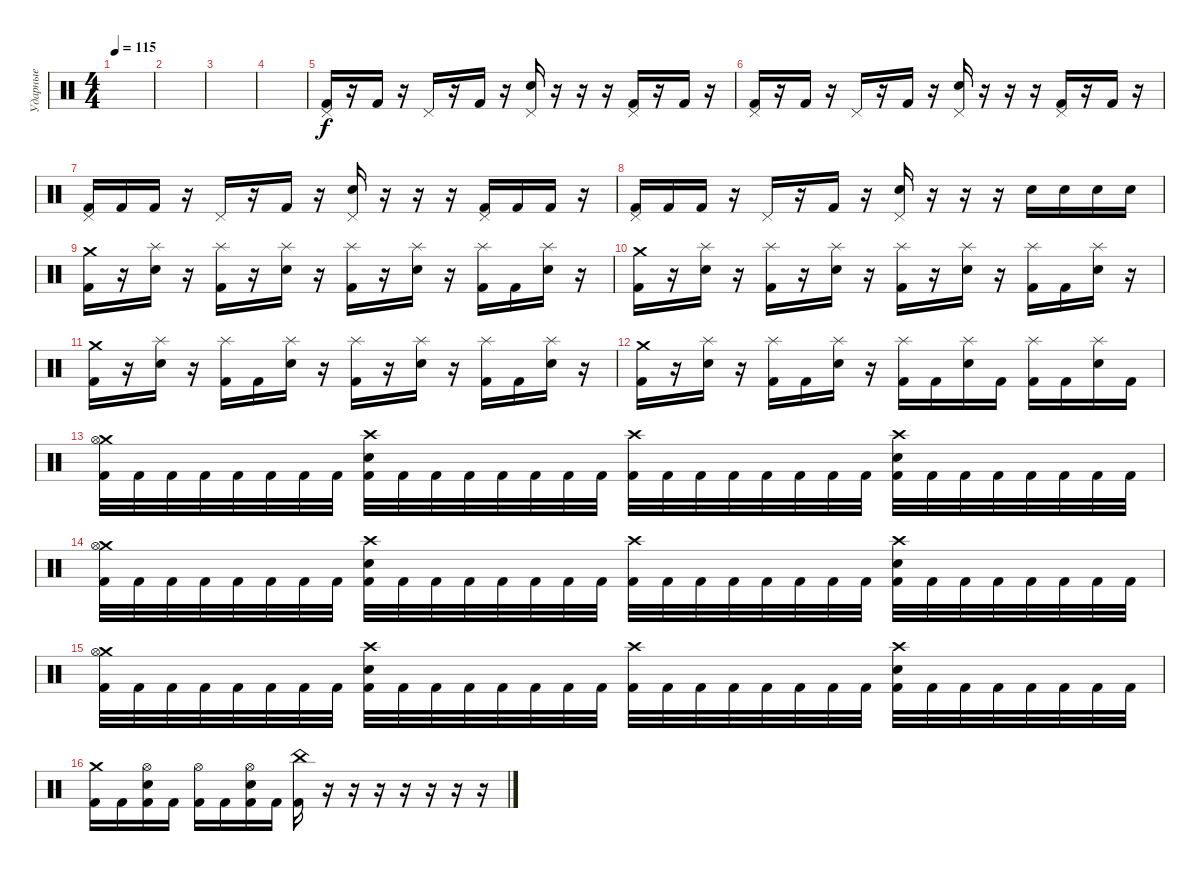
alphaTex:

\track ("Ударные" "Ударные") {instrument percussion}
\staff {score}
\articulation defaults
\ts (4 4)
\tempo 115
\clef neutral
\ks c
|
|
|
|
("Pedal Hi-Hat (hit)" "Kick (hit) 2").16 r.16 "Kick (hit) 2".16 r.16 "Pedal Hi-Hat (hit)".16 r.16 "Kick (hit) 2".16 r.16 ("Pedal Hi-Hat (hit)" "Electric Snare (hit)").16 r.16 r.16 r.16 ("Pedal Hi-Hat (hit)" "Kick (hit) 2").16 r.16 "Kick (hit) 2".16 r.16 |
("Pedal Hi-Hat (hit)" "Kick (hit) 2").16 r.16 "Kick (hit) 2".16 r.16 "Pedal Hi-Hat (hit)".16 r.16 "Kick (hit) 2".16 r.16 ("Pedal Hi-Hat (hit)" "Electric Snare (hit)").16 r.16 r.16 r.16 ("Pedal Hi-Hat (hit)" "Kick (hit) 2").16 r.16 "Kick (hit) 2".16 r.16 |
("Pedal Hi-Hat (hit)" "Kick (hit) 2").16 "Kick (hit) 2".16 "Kick (hit) 2".16 r.16 "Pedal Hi-Hat (hit)".16 r.16 "Kick (hit) 2".16 r.16 ("Pedal Hi-Hat (hit)" "Electric Snare (hit)").16 r.16 r.16 r.16 ("Pedal Hi-Hat (hit)" "Kick (hit) 2").16 "Kick (hit) 2".16 "Kick (hit) 2".16 r.16 |
("Pedal Hi-Hat (hit)" "Kick (hit) 2").16 "Kick (hit) 2".16 "Kick (hit) 2".16 r.16 "Pedal Hi-Hat (hit)".16 r.16 "Kick (hit) 2".16 r.16 ("Pedal Hi-Hat (hit)" "Electric Snare (hit)").16 r.16 r.16 r.16 "Electric Snare (hit)".16 "Electric Snare (hit)".16 "Electric Snare (hit)".16 "Electric Snare (hit)".16 |
("Crash medium (hit)" "Kick (hit) 2").16 r.16 ("Splash (hit)" "Electric Snare (hit)").16 r.16 ("Splash (hit)" "Kick (hit) 2").16 r.16 ("Splash (hit)" "Electric Snare (hit)").16 r.16 ("Splash (hit)" "Kick (hit) 2").16 r.16 ("Splash (hit)" "Electric Snare (hit)").16 r.16 ("Splash (hit)" "Kick (hit) 2").16 "Kick (hit) 2".16 ("Splash (hit)" "Electric Snare (hit)").16 r.16 |
("Crash medium (hit)" "Kick (hit) 2").16 r.16 ("Splash (hit)" "Electric Snare (hit)").16 r.16 ("Splash (hit)" "Kick (hit) 2").16 r.16 ("Splash (hit)" "Electric Snare (hit)").16 r.16 ("Splash (hit)" "Kick (hit) 2").16 r.16 ("Splash (hit)" "Electric Snare (hit)").16 r.16 ("Splash (hit)" "Kick (hit) 2").16 "Kick (hit) 2".16 ("Splash (hit)" "Electric Snare (hit)").16 r.16 |
("Crash medium (hit)" "Kick (hit) 2").16 r.16 ("Splash (hit)" "Electric Snare (hit)").16 r.16 ("Splash (hit)" "Kick (hit) 2").16 "Kick (hit) 2".16 ("Splash (hit)" "Electric Snare (hit)").16 r.16 ("Splash (hit)" "Kick (hit) 2").16 r.16 ("Splash (hit)" "Electric Snare (hit)").16 r.16 ("Splash (hit)" "Kick (hit) 2").16 "Kick (hit) 2".16 ("Splash (hit)" "Electric Snare (hit)").16 r.16 |
("Crash medium (hit)" "Kick (hit) 2").16 r.16 ("Splash (hit)" "Electric Snare (hit)").16 r.16 ("Splash (hit)" "Kick (hit) 2").16 "Kick (hit) 2".16 ("Splash (hit)" "Electric Snare (hit)").16 r.16 ("Splash (hit)" "Kick (hit) 2").16 "Kick (hit) 2".16 ("Splash (hit)" "Electric Snare (hit)").16 "Kick (hit) 2".16 ("Splash (hit)" "Kick (hit) 2").16 "Kick (hit) 2".16 ("Splash (hit)" "Electric Snare (hit)").16 "Kick (hit) 2".16 |
("Crash medium (hit)" "Hi-Hat (open)" "Kick (hit) 2").32 "Kick (hit) 2".32 "Kick (hit) 2".32 "Kick (hit) 2".32 "Kick (hit) 2".32 "Kick (hit) 2".32 "Kick (hit) 2".32 "Kick (hit) 2".32 ("Crash high (hit)" "Electric Snare (hit)" "Kick (hit) 2").32 "Kick (hit) 2".32 "Kick (hit) 2".32 "Kick (hit) 2".32 "Kick (hit) 2".32 "Kick (hit) 2".32 "Kick (hit) 2".32 "Kick (hit) 2".32 ("Crash high (hit)" "Kick (hit) 2").32 "Kick (hit) 2".32 "Kick (hit) 2".32 "Kick (hit) 2".32 "Kick (hit) 2".32 "Kick (hit) 2".32 "Kick (hit) 2".32 "Kick (hit) 2".32 ("Crash high (hit)" "Electric Snare (hit)" "Kick (hit) 2").32 "Kick (hit) 2".32 "Kick (hit) 2".32 "Kick (hit) 2".32 "Kick (hit) 2".32 "Kick (hit) 2".32 "Kick (hit) 2".32 "Kick (hit) 2".32 |
("Crash medium (hit)" "Hi-Hat (open)" "Kick (hit) 2").32 "Kick (hit) 2".32 "Kick (hit) 2".32 "Kick (hit) 2".32 "Kick (hit) 2".32 "Kick (hit) 2".32 "Kick (hit) 2".32 "Kick (hit) 2".32 ("Crash high (hit)" "Electric Snare (hit)" "Kick (hit) 2").32 "Kick (hit) 2".32 "Kick (hit) 2".32 "Kick (hit) 2".32 "Kick (hit) 2".32 "Kick (hit) 2".32 "Kick (hit) 2".32 "Kick (hit) 2".32 ("Crash high (hit)" "Kick (hit) 2").32 "Kick (hit) 2".32 "Kick (hit) 2".32 "Kick (hit) 2".32 "Kick (hit) 2".32 "Kick (hit) 2".32 "Kick (hit) 2".32 "Kick (hit) 2".32 ("Crash high (hit)" "Electric Snare (hit)" "Kick (hit) 2").32 "Kick (hit) 2".32 "Kick (hit) 2".32 "Kick (hit) 2".32 "Kick (hit) 2".32 "Kick (hit) 2".32 "Kick (hit) 2".32 "Kick (hit) 2".32 |
("Crash medium (hit)" "Hi-Hat (open)" "Kick (hit) 2").32 "Kick (hit) 2".32 "Kick (hit) 2".32 "Kick (hit) 2".32 "Kick (hit) 2".32 "Kick (hit) 2".32 "Kick (hit) 2".32 "Kick (hit) 2".32 ("Crash high (hit)" "Electric Snare (hit)" "Kick (hit) 2").32 "Kick (hit) 2".32 "Kick (hit) 2".32 "Kick (hit) 2".32 "Kick (hit) 2".32 "Kick (hit) 2".32 "Kick (hit) 2".32 "Kick (hit) 2".32 ("Crash high (hit)" "Kick (hit) 2").32 "Kick (hit) 2".32 "Kick (hit) 2".32 "Kick (hit) 2".32 "Kick (hit) 2".32 "Kick (hit) 2".32 "Kick (hit) 2".32 "Kick (hit) 2".32 ("Crash high (hit)" "Electric Snare (hit)" "Kick (hit) 2").32 "Kick (hit) 2".32 "Kick (hit) 2".32 "Kick (hit) 2".32 "Kick (hit) 2".32 "Kick (hit) 2".32 "Kick (hit) 2".32 "Kick (hit) 2".32 |
("Crash medium (hit)" "Kick (hit) 2").16 "Kick (hit) 2".16 ("Hi-Hat (open)" "Electric Snare (hit)" "Kick (hit) 2").16 "Kick (hit) 2".16 ("Hi-Hat (open)" "Kick (hit) 2").16 "Kick (hit) 2".16 ("Hi-Hat (open)" "Electric Snare (hit)" "Kick (hit) 2").16 "Kick (hit) 2".16 ("China (hit)" "Kick (hit) 2").16 r.16 r.16 r.16 r.16 r.16 r.16 r.16
